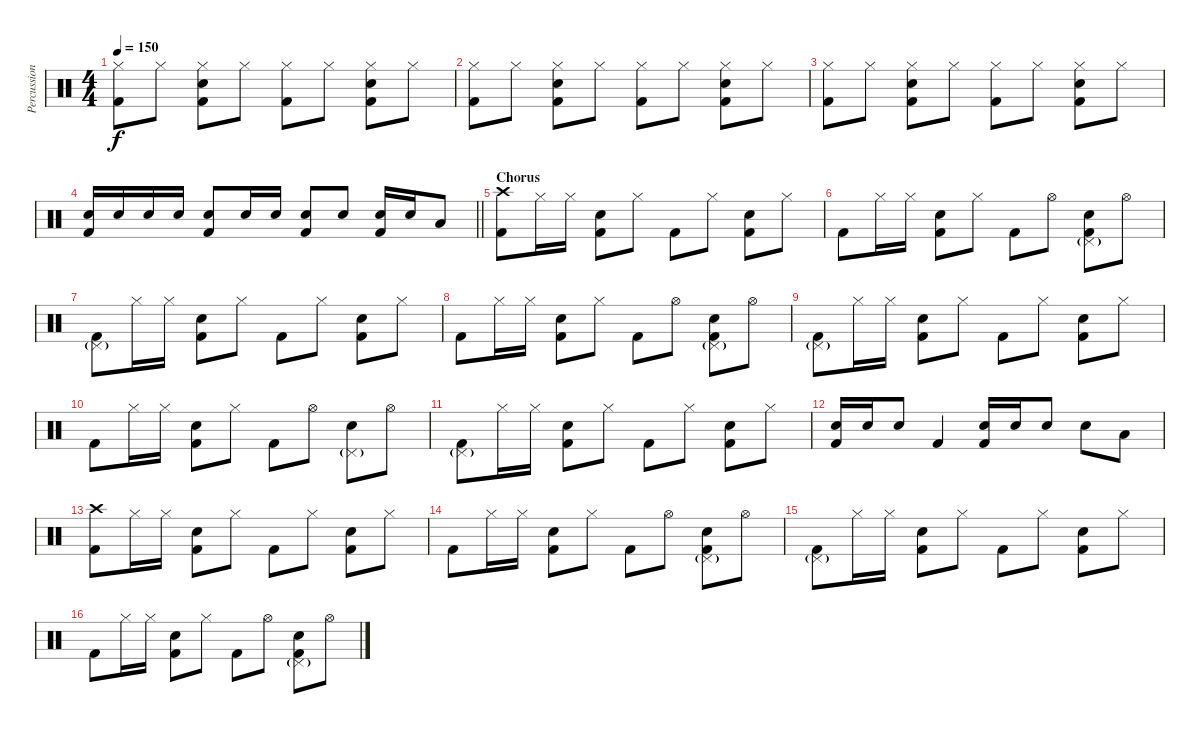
\track ("Percussion" "Percussion") {instrument percussion}
\staff {score}
\articulation defaults
\ts (4 4)
\tempo 150
\clef neutral
\ks c
("Hi-Hat (closed)" "Kick (hit) 2").8{dy f} "Hi-Hat (closed)".8 ("Hi-Hat (closed)" "Electric Snare (hit)" "Kick (hit) 2").8 "Hi-Hat (closed)".8 ("Hi-Hat (closed)" "Kick (hit) 2").8 "Hi-Hat (closed)".8 ("Hi-Hat (closed)" "Electric Snare (hit)" "Kick (hit) 2").8 "Hi-Hat (closed)".8 |
("Hi-Hat (closed)" "Kick (hit) 2").8 "Hi-Hat (closed)".8 ("Hi-Hat (closed)" "Electric Snare (hit)" "Kick (hit) 2").8 "Hi-Hat (closed)".8 ("Hi-Hat (closed)" "Kick (hit) 2").8 "Hi-Hat (closed)".8 ("Hi-Hat (closed)" "Electric Snare (hit)" "Kick (hit) 2").8 "Hi-Hat (closed)".8 |
("Hi-Hat (closed)" "Kick (hit) 2").8 "Hi-Hat (closed)".8 ("Hi-Hat (closed)" "Electric Snare (hit)" "Kick (hit) 2").8 "Hi-Hat (closed)".8 ("Hi-Hat (closed)" "Kick (hit) 2").8 "Hi-Hat (closed)".8 ("Hi-Hat (closed)" "Electric Snare (hit)" "Kick (hit) 2").8 "Hi-Hat (closed)".8 |
\barLineRight lightlight
("Electric Snare (hit)" "Kick (hit) 2").16 "Electric Snare (hit)".16 "Electric Snare (hit)".16 "Electric Snare (hit)".16 ("Electric Snare (hit)" "Kick (hit) 2").8 "Electric Snare (hit)".16 "Electric Snare (hit)".16 ("Electric Snare (hit)" "Kick (hit) 2").8 "Electric Snare (hit)".8 ("Electric Snare (hit)" "Kick (hit) 2").16 "Electric Snare (hit)".16 "Low Tom (hit)".8 |
\section ("" "Chorus")
("Crash high (hit)" "Kick (hit) 2").8 "Hi-Hat (closed)".16 "Hi-Hat (closed)".16 ("Electric Snare (hit)" "Kick (hit) 2").8 "Hi-Hat (closed)".8 "Kick (hit) 2".8 "Hi-Hat (closed)".8 ("Electric Snare (hit)" "Kick (hit) 2").8 "Hi-Hat (closed)".8 |
"Kick (hit) 2".8 "Hi-Hat (closed)".16 "Hi-Hat (closed)".16 ("Electric Snare (hit)" "Kick (hit) 2").8 "Hi-Hat (closed)".8 "Kick (hit) 2".8 "Hi-Hat (open)".8 ("Pedal Hi-Hat (hit)"{g} "Electric Snare (hit)" "Kick (hit) 2").8 "Hi-Hat (open)".8 |
("Pedal Hi-Hat (hit)"{g} "Kick (hit) 2").8 "Hi-Hat (closed)".16 "Hi-Hat (closed)".16 ("Electric Snare (hit)" "Kick (hit) 2").8 "Hi-Hat (closed)".8 "Kick (hit) 2".8 "Hi-Hat (closed)".8 ("Electric Snare (hit)" "Kick (hit) 2").8 "Hi-Hat (closed)".8 |
"Kick (hit) 2".8 "Hi-Hat (closed)".16 "Hi-Hat (closed)".16 ("Electric Snare (hit)" "Kick (hit) 2").8 "Hi-Hat (closed)".8 "Kick (hit) 2".8 "Hi-Hat (open)".8 ("Pedal Hi-Hat (hit)"{g} "Electric Snare (hit)" "Kick (hit) 2").8 "Hi-Hat (open)".8 |
("Pedal Hi-Hat (hit)"{g} "Kick (hit) 2").8 "Hi-Hat (closed)".16 "Hi-Hat (closed)".16 ("Electric Snare (hit)" "Kick (hit) 2").8 "Hi-Hat (closed)".8 "Kick (hit) 2".8 "Hi-Hat (closed)".8 ("Electric Snare (hit)" "Kick (hit) 2").8 "Hi-Hat (closed)".8 |
"Kick (hit) 2".8 "Hi-Hat (closed)".16 "Hi-Hat (closed)".16 ("Electric Snare (hit)" "Kick (hit) 2").8 "Hi-Hat (closed)".8 "Kick (hit) 2".8 "Hi-Hat (open)".8 ("Pedal Hi-Hat (hit)"{g} "Electric Snare (hit)").8 "Hi-Hat (open)".8 |
("Pedal Hi-Hat (hit)"{g} "Kick (hit) 2").8 "Hi-Hat (closed)".16 "Hi-Hat (closed)".16 ("Electric Snare (hit)" "Kick (hit) 2").8 "Hi-Hat (closed)".8 "Kick (hit) 2".8 "Hi-Hat (closed)".8 ("Electric Snare (hit)" "Kick (hit) 2").8 "Hi-Hat (closed)".8 |
("Electric Snare (hit)" "Kick (hit) 2").16 "Electric Snare (hit)".16 "Electric Snare (hit)".8 "Kick (hit) 2".4 ("Electric Snare (hit)" "Kick (hit) 2").16 "Electric Snare (hit)".16 "Electric Snare (hit)".8 "Electric Snare (hit)".8 "Low Tom (hit)".8 |
("Crash high (hit)" "Kick (hit) 2").8 "Hi-Hat (closed)".16 "Hi-Hat (closed)".16 ("Electric Snare (hit)" "Kick (hit) 2").8 "Hi-Hat (closed)".8 "Kick (hit) 2".8 "Hi-Hat (closed)".8 ("Electric Snare (hit)" "Kick (hit) 2").8 "Hi-Hat (closed)".8 |
"Kick (hit) 2".8 "Hi-Hat (closed)".16 "Hi-Hat (closed)".16 ("Electric Snare (hit)" "Kick (hit) 2").8 "Hi-Hat (closed)".8 "Kick (hit) 2".8 "Hi-Hat (open)".8 ("Pedal Hi-Hat (hit)"{g} "Electric Snare (hit)" "Kick (hit) 2").8 "Hi-Hat (open)".8 |
("Pedal Hi-Hat (hit)"{g} "Kick (hit) 2").8 "Hi-Hat (closed)".16 "Hi-Hat (closed)".16 ("Electric Snare (hit)" "Kick (hit) 2").8 "Hi-Hat (closed)".8 "Kick (hit) 2".8 "Hi-Hat (closed)".8 ("Electric Snare (hit)" "Kick (hit) 2").8 "Hi-Hat (closed)".8 |
"Kick (hit) 2".8 "Hi-Hat (closed)".16 "Hi-Hat (closed)".16 ("Electric Snare (hit)" "Kick (hit) 2").8 "Hi-Hat (closed)".8 "Kick (hit) 2".8 "Hi-Hat (open)".8 ("Pedal Hi-Hat (hit)"{g} "Electric Snare (hit)" "Kick (hit) 2").8 "Hi-Hat (open)".8
